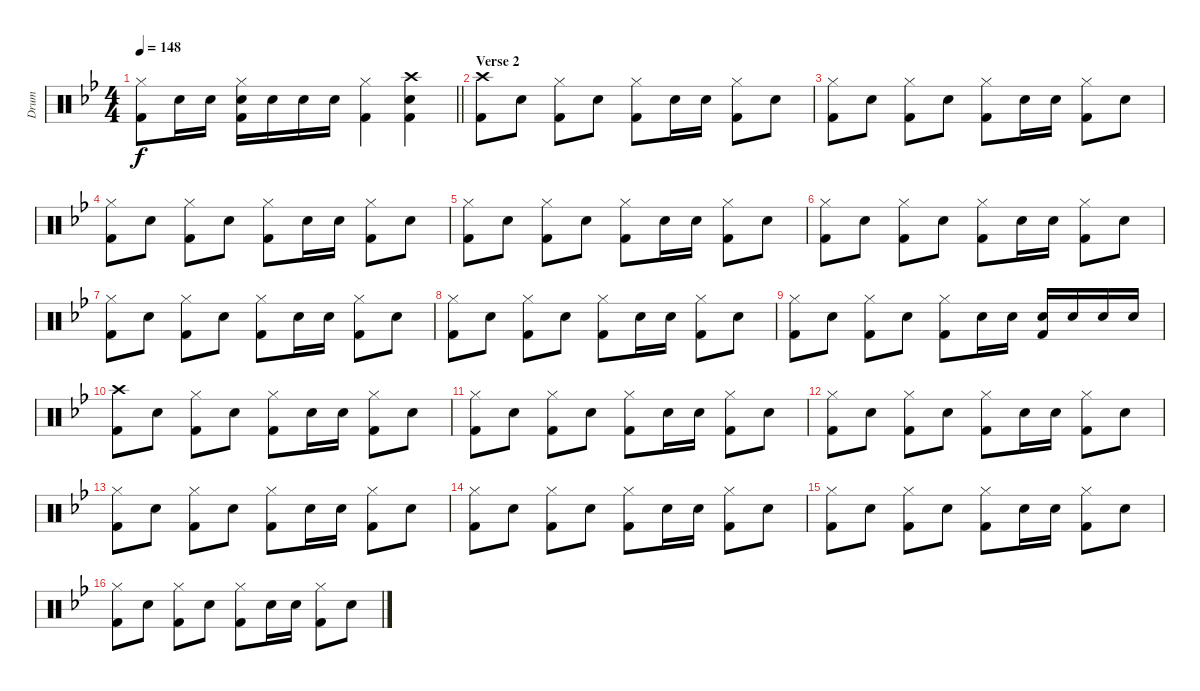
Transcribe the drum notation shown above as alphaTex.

\track ("Drum" "Drum") {instrument percussion}
\staff {score}
\articulation defaults
\ts (4 4)
\tempo 148
\clef neutral
\barLineRight lightlight
\ks bb
("Hi-Hat (closed)" "Kick (hit) 2").8{dy f} "Snare (hit) 2".16 "Snare (hit) 2".16 ("Hi-Hat (closed)" "Snare (hit) 2" "Kick (hit) 2").16 "Snare (hit) 2".16 "Snare (hit) 2".16 "Snare (hit) 2".16 ("Hi-Hat (closed)" "Kick (hit) 2").4 ("Crash high (hit)" "Snare (hit) 2" "Kick (hit) 2").4 |
\section ("" "Verse 2")
("Crash high (hit)" "Kick (hit) 2").8 "Snare (hit) 2".8 ("Hi-Hat (closed)" "Kick (hit) 2").8 "Snare (hit) 2".8 ("Hi-Hat (closed)" "Kick (hit) 2").8 "Snare (hit) 2".16 "Snare (hit) 2".16 ("Hi-Hat (closed)" "Kick (hit) 2").8 "Snare (hit) 2".8 |
("Hi-Hat (closed)" "Kick (hit) 2").8 "Snare (hit) 2".8 ("Hi-Hat (closed)" "Kick (hit) 2").8 "Snare (hit) 2".8 ("Hi-Hat (closed)" "Kick (hit) 2").8 "Snare (hit) 2".16 "Snare (hit) 2".16 ("Hi-Hat (closed)" "Kick (hit) 2").8 "Snare (hit) 2".8 |
("Hi-Hat (closed)" "Kick (hit) 2").8 "Snare (hit) 2".8 ("Hi-Hat (closed)" "Kick (hit) 2").8 "Snare (hit) 2".8 ("Hi-Hat (closed)" "Kick (hit) 2").8 "Snare (hit) 2".16 "Snare (hit) 2".16 ("Hi-Hat (closed)" "Kick (hit) 2").8 "Snare (hit) 2".8 |
("Hi-Hat (closed)" "Kick (hit) 2").8 "Snare (hit) 2".8 ("Hi-Hat (closed)" "Kick (hit) 2").8 "Snare (hit) 2".8 ("Hi-Hat (closed)" "Kick (hit) 2").8 "Snare (hit) 2".16 "Snare (hit) 2".16 ("Hi-Hat (closed)" "Kick (hit) 2").8 "Snare (hit) 2".8 |
("Hi-Hat (closed)" "Kick (hit) 2").8 "Snare (hit) 2".8 ("Hi-Hat (closed)" "Kick (hit) 2").8 "Snare (hit) 2".8 ("Hi-Hat (closed)" "Kick (hit) 2").8 "Snare (hit) 2".16 "Snare (hit) 2".16 ("Hi-Hat (closed)" "Kick (hit) 2").8 "Snare (hit) 2".8 |
("Hi-Hat (closed)" "Kick (hit) 2").8 "Snare (hit) 2".8 ("Hi-Hat (closed)" "Kick (hit) 2").8 "Snare (hit) 2".8 ("Hi-Hat (closed)" "Kick (hit) 2").8 "Snare (hit) 2".16 "Snare (hit) 2".16 ("Hi-Hat (closed)" "Kick (hit) 2").8 "Snare (hit) 2".8 |
("Hi-Hat (closed)" "Kick (hit) 2").8 "Snare (hit) 2".8 ("Hi-Hat (closed)" "Kick (hit) 2").8 "Snare (hit) 2".8 ("Hi-Hat (closed)" "Kick (hit) 2").8 "Snare (hit) 2".16 "Snare (hit) 2".16 ("Hi-Hat (closed)" "Kick (hit) 2").8 "Snare (hit) 2".8 |
("Hi-Hat (closed)" "Kick (hit) 2").8 "Snare (hit) 2".8 ("Hi-Hat (closed)" "Kick (hit) 2").8 "Snare (hit) 2".8 ("Hi-Hat (closed)" "Kick (hit) 2").8 "Snare (hit) 2".16 "Snare (hit) 2".16 ("Snare (hit) 2" "Kick (hit) 2").16 "Snare (hit) 2".16 "Snare (hit) 2".16 "Snare (hit) 2".16 |
("Crash high (hit)" "Kick (hit) 2").8 "Snare (hit) 2".8 ("Hi-Hat (closed)" "Kick (hit) 2").8 "Snare (hit) 2".8 ("Hi-Hat (closed)" "Kick (hit) 2").8 "Snare (hit) 2".16 "Snare (hit) 2".16 ("Hi-Hat (closed)" "Kick (hit) 2").8 "Snare (hit) 2".8 |
("Hi-Hat (closed)" "Kick (hit) 2").8 "Snare (hit) 2".8 ("Hi-Hat (closed)" "Kick (hit) 2").8 "Snare (hit) 2".8 ("Hi-Hat (closed)" "Kick (hit) 2").8 "Snare (hit) 2".16 "Snare (hit) 2".16 ("Hi-Hat (closed)" "Kick (hit) 2").8 "Snare (hit) 2".8 |
("Hi-Hat (closed)" "Kick (hit) 2").8 "Snare (hit) 2".8 ("Hi-Hat (closed)" "Kick (hit) 2").8 "Snare (hit) 2".8 ("Hi-Hat (closed)" "Kick (hit) 2").8 "Snare (hit) 2".16 "Snare (hit) 2".16 ("Hi-Hat (closed)" "Kick (hit) 2").8 "Snare (hit) 2".8 |
("Hi-Hat (closed)" "Kick (hit) 2").8 "Snare (hit) 2".8 ("Hi-Hat (closed)" "Kick (hit) 2").8 "Snare (hit) 2".8 ("Hi-Hat (closed)" "Kick (hit) 2").8 "Snare (hit) 2".16 "Snare (hit) 2".16 ("Hi-Hat (closed)" "Kick (hit) 2").8 "Snare (hit) 2".8 |
("Hi-Hat (closed)" "Kick (hit) 2").8 "Snare (hit) 2".8 ("Hi-Hat (closed)" "Kick (hit) 2").8 "Snare (hit) 2".8 ("Hi-Hat (closed)" "Kick (hit) 2").8 "Snare (hit) 2".16 "Snare (hit) 2".16 ("Hi-Hat (closed)" "Kick (hit) 2").8 "Snare (hit) 2".8 |
("Hi-Hat (closed)" "Kick (hit) 2").8 "Snare (hit) 2".8 ("Hi-Hat (closed)" "Kick (hit) 2").8 "Snare (hit) 2".8 ("Hi-Hat (closed)" "Kick (hit) 2").8 "Snare (hit) 2".16 "Snare (hit) 2".16 ("Hi-Hat (closed)" "Kick (hit) 2").8 "Snare (hit) 2".8 |
("Hi-Hat (closed)" "Kick (hit) 2").8 "Snare (hit) 2".8 ("Hi-Hat (closed)" "Kick (hit) 2").8 "Snare (hit) 2".8 ("Hi-Hat (closed)" "Kick (hit) 2").8 "Snare (hit) 2".16 "Snare (hit) 2".16 ("Hi-Hat (closed)" "Kick (hit) 2").8 "Snare (hit) 2".8
